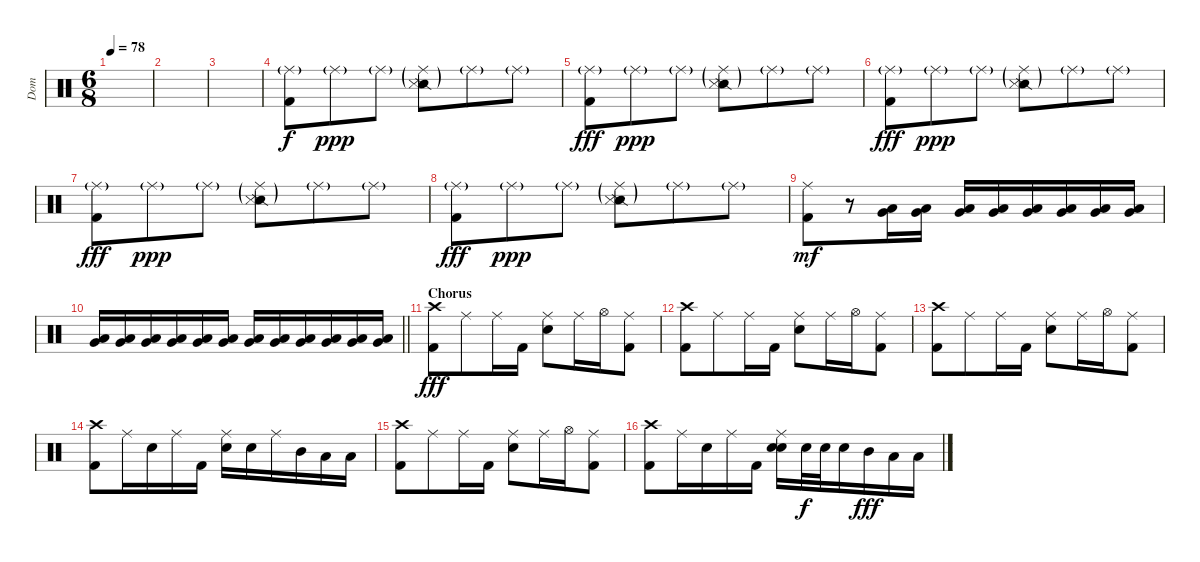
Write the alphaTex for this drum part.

\track ("Dom" "Dom") {instrument percussion}
\staff {score}
\articulation defaults
\ts (6 8)
\tempo 78
\clef neutral
\ks c
|
|
|
("Ride (middle)"{g} "Kick (hit) 2").8 "Ride (middle)"{g}.8{dy ppp} "Ride (middle)"{g}.8 ("Ride (middle)"{g} "Snare (side stick) 2"{g} "Snare (side stick) 3"{g}).8 "Ride (middle)"{g}.8 "Ride (middle)"{g}.8 |
("Ride (middle)"{g} "Kick (hit) 2").8{dy fff} "Ride (middle)"{g}.8{dy ppp} "Ride (middle)"{g}.8 ("Ride (middle)"{g} "Snare (side stick) 2"{g} "Snare (side stick) 3"{g}).8 "Ride (middle)"{g}.8 "Ride (middle)"{g}.8 |
("Ride (middle)"{g} "Kick (hit) 2").8{dy fff} "Ride (middle)"{g}.8{dy ppp} "Ride (middle)"{g}.8 ("Ride (middle)"{g} "Snare (side stick) 2"{g} "Snare (side stick) 3"{g}).8 "Ride (middle)"{g}.8 "Ride (middle)"{g}.8 |
("Ride (middle)"{g} "Kick (hit) 2").8{dy fff} "Ride (middle)"{g}.8{dy ppp} "Ride (middle)"{g}.8 ("Ride (middle)"{g} "Snare (side stick) 2"{g} "Snare (side stick) 3"{g}).8 "Ride (middle)"{g}.8 "Ride (middle)"{g}.8 |
("Ride (middle)"{g} "Kick (hit) 2").8{dy fff} "Ride (middle)"{g}.8{dy ppp} "Ride (middle)"{g}.8 ("Ride (middle)"{g} "Snare (side stick) 2"{g} "Snare (side stick) 3"{g}).8 "Ride (middle)"{g}.8 "Ride (middle)"{g}.8 |
("Ride (middle)" "Kick (hit) 2").8{dy mf} r.8{volume 0} ("Very Low Tom (hit)" "Low Floor Tom (hit)").16{volume 13} ("Very Low Tom (hit)" "Low Floor Tom (hit)").16 ("Very Low Tom (hit)" "Low Floor Tom (hit)").16 ("Very Low Tom (hit)" "Low Floor Tom (hit)").16 ("Very Low Tom (hit)" "Low Floor Tom (hit)").16 ("Very Low Tom (hit)" "Low Floor Tom (hit)").16 ("Very Low Tom (hit)" "Low Floor Tom (hit)").16 ("Very Low Tom (hit)" "Low Floor Tom (hit)").16 |
\barLineRight lightlight
("Very Low Tom (hit)" "Low Floor Tom (hit)").16 ("Very Low Tom (hit)" "Low Floor Tom (hit)").16 ("Very Low Tom (hit)" "Low Floor Tom (hit)").16 ("Very Low Tom (hit)" "Low Floor Tom (hit)").16 ("Very Low Tom (hit)" "Low Floor Tom (hit)").16 ("Very Low Tom (hit)" "Low Floor Tom (hit)").16 ("Very Low Tom (hit)" "Low Floor Tom (hit)").16 ("Very Low Tom (hit)" "Low Floor Tom (hit)").16 ("Very Low Tom (hit)" "Low Floor Tom (hit)").16 ("Very Low Tom (hit)" "Low Floor Tom (hit)").16 ("Very Low Tom (hit)" "Low Floor Tom (hit)").16 ("Very Low Tom (hit)" "Low Floor Tom (hit)").16 |
\section ("" "Chorus")
("Crash high (hit)" "Kick (hit) 2").8{dy fff} "Ride (middle)".8 "Ride (middle)".16 "Kick (hit) 2".16 ("Ride (middle)" "Electric Snare (hit)").8 "Ride (middle)".16 "Hi-Hat (open)".16 ("Ride (middle)" "Kick (hit) 2").8 |
("Crash high (hit)" "Kick (hit) 2").8 "Ride (middle)".8 "Ride (middle)".16 "Kick (hit) 2".16 ("Ride (middle)" "Electric Snare (hit)").8 "Ride (middle)".16 "Hi-Hat (open)".16 ("Ride (middle)" "Kick (hit) 2").8 |
("Crash high (hit)" "Kick (hit) 2").8 "Ride (middle)".8 "Ride (middle)".16 "Kick (hit) 2".16 ("Ride (middle)" "Electric Snare (hit)").8 "Ride (middle)".16 "Hi-Hat (open)".16 ("Ride (middle)" "Kick (hit) 2").8 |
("Crash high (hit)" "Kick (hit) 2").8 "Ride (middle)".16 "Electric Snare (hit)".16 "Ride (middle)".16 "Kick (hit) 2".16 ("Ride (middle)" "Electric Snare (hit)").16 "Electric Snare (hit)".16 "Ride (middle)".16 "Mid Tom (hit)".16 "Low Tom (hit)".16 "Low Floor Tom (hit)".16 |
("Crash high (hit)" "Kick (hit) 2").8 "Ride (middle)".8 "Ride (middle)".16 "Kick (hit) 2".16 ("Ride (middle)" "Electric Snare (hit)").8 "Ride (middle)".16 "Hi-Hat (open)".16 ("Ride (middle)" "Kick (hit) 2").8 |
("Crash high (hit)" "Kick (hit) 2").8 "Ride (middle)".16 "Electric Snare (hit)".16 "Ride (middle)".16 "Kick (hit) 2".16 ("Ride (middle)" "Electric Snare (hit)" "Electric Snare (hit)").16{bd 60} "Electric Snare (hit)".32{dy f} "Electric Snare (hit)".32 "Electric Snare (hit)".16 "Mid Tom (hit)".16{dy fff} "Low Tom (hit)".16 "Low Floor Tom (hit)".16
